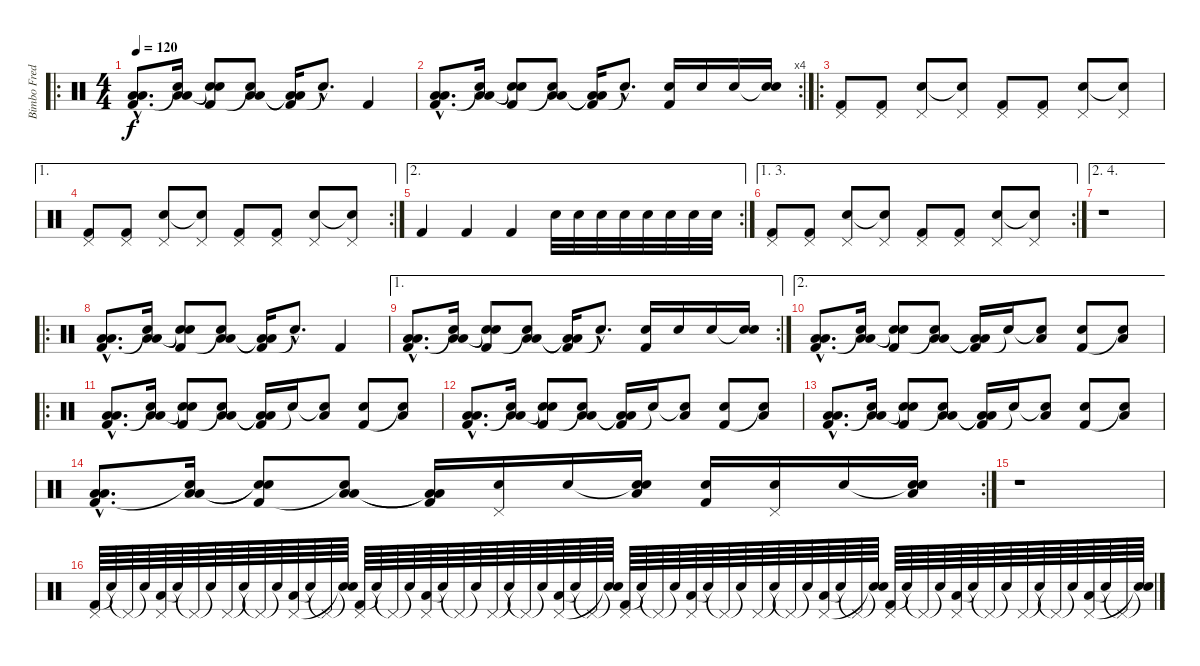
\track ("Bimbo Fred" "Bimbo Fred") {instrument percussion}
\staff {score}
\articulation defaults
\ro
\ts (4 4)
\tempo 120
\clef neutral
\ks c
("Kick (hit) 2"{hac} "Low Tom (hit)"{hac} "Low Tom (hit)"{hac}).8{d dy f} ("Snare (hit)"{t} "Low Tom (hit)" "Low Tom (hit)").16 ("Kick (hit) 2" "Snare (hit)"{t} "Snare (hit)"{t}).8 ("Snare (hit)"{t} "Low Tom (hit)" "Low Tom (hit)").8 ("Kick (hit) 2" "Low Tom (hit)"{t} "Low Tom (hit)"{t}).16 "Snare (hit)"{hac t}.8{d} "Kick (hit) 2".4 |
\rc 4
("Kick (hit) 2"{hac} "Low Tom (hit)"{hac} "Low Tom (hit)"{hac}).8{d} ("Snare (hit)"{t} "Low Tom (hit)" "Low Tom (hit)").16 ("Kick (hit) 2" "Snare (hit)"{t} "Snare (hit)"{t}).8 ("Snare (hit)"{t} "Low Tom (hit)" "Low Tom (hit)").8 ("Kick (hit) 2" "Low Tom (hit)"{t} "Low Tom (hit)"{t}).16 "Snare (hit)"{hac t}.8{d} ("Kick (hit) 2" "Snare (hit) 2").16 "Snare (hit) 2".16 "Snare (hit) 2".16 ("Snare (hit)"{t} "Snare (hit) 2").16 |
\ro
("Pedal Hi-Hat (hit)" "Kick (hit) 2").8 ("Pedal Hi-Hat (hit)" "Kick (hit) 2").8 ("Pedal Hi-Hat (hit)" "Snare (hit) 2").8 ("Pedal Hi-Hat (hit)" "Snare (hit) 2"{t}).8 ("Pedal Hi-Hat (hit)" "Kick (hit) 2").8 ("Pedal Hi-Hat (hit)" "Kick (hit) 2").8 ("Pedal Hi-Hat (hit)" "Snare (hit) 2").8 ("Pedal Hi-Hat (hit)" "Snare (hit)"{t}).8 |
\ae 1
\rc 2
("Pedal Hi-Hat (hit)" "Kick (hit) 2").8 ("Pedal Hi-Hat (hit)" "Kick (hit) 2").8 ("Pedal Hi-Hat (hit)" "Snare (hit) 2").8 ("Pedal Hi-Hat (hit)" "Snare (hit) 2"{t}).8 ("Pedal Hi-Hat (hit)" "Kick (hit) 2").8 ("Pedal Hi-Hat (hit)" "Kick (hit) 2").8 ("Pedal Hi-Hat (hit)" "Snare (hit) 2").8 ("Pedal Hi-Hat (hit)" "Snare (hit)"{t}).8 |
\ae 2
\rc 2 "Kick (hit) 2".4 "Kick (hit) 2".4 "Kick (hit) 2".4 "Snare (hit) 2".32 "Snare (hit) 2".32 "Snare (hit) 2".32 "Snare (hit) 2".32 "Snare (hit) 2".32 "Snare (hit) 2".32 "Snare (hit) 2".32 "Snare (hit) 2".32
|
\ae (1 3)
\rc 2
("Pedal Hi-Hat (hit)" "Kick (hit) 2").8 ("Pedal Hi-Hat (hit)" "Kick (hit) 2").8 ("Pedal Hi-Hat (hit)" "Snare (hit) 2").8 ("Pedal Hi-Hat (hit)" "Snare (hit) 2"{t}).8 ("Pedal Hi-Hat (hit)" "Kick (hit) 2").8 ("Pedal Hi-Hat (hit)" "Kick (hit) 2").8 ("Pedal Hi-Hat (hit)" "Snare (hit) 2").8 ("Pedal Hi-Hat (hit)" "Snare (hit)"{t}).8 |
\ae (2 4)
r.1 |
\ro
("Kick (hit) 2"{hac} "Low Tom (hit)"{hac} "Low Tom (hit)"{hac}).8{d} ("Snare (hit)"{t} "Low Tom (hit)" "Low Tom (hit)").16 ("Kick (hit) 2" "Snare (hit)"{t} "Snare (hit)"{t}).8 ("Snare (hit)"{t} "Low Tom (hit)" "Low Tom (hit)").8 ("Kick (hit) 2" "Low Tom (hit)"{t} "Low Tom (hit)"{t}).16 "Snare (hit)"{hac t}.8{d} "Kick (hit) 2".4 |
\ae 1
\rc 2
("Kick (hit) 2"{hac} "Low Tom (hit)"{hac} "Low Tom (hit)"{hac}).8{d} ("Snare (hit)"{t} "Low Tom (hit)" "Low Tom (hit)").16 ("Kick (hit) 2" "Snare (hit)"{t} "Snare (hit)"{t}).8 ("Snare (hit)"{t} "Low Tom (hit)" "Low Tom (hit)").8 ("Kick (hit) 2" "Low Tom (hit)"{t} "Low Tom (hit)"{t}).16 "Snare (hit)"{hac t}.8{d} ("Kick (hit) 2" "Snare (hit) 2").16 "Snare (hit) 2".16 "Snare (hit) 2".16 ("Snare (hit)"{t} "Snare (hit) 2").16 |
\ae 2
("Kick (hit) 2"{hac} "Low Tom (hit)"{hac} "Low Tom (hit)"{hac}).8{d} ("Snare (hit)"{t} "Low Tom (hit)" "Low Tom (hit)").16 ("Kick (hit) 2" "Snare (hit)"{t} "Snare (hit)"{t}).8 ("Snare (hit)"{t} "Low Tom (hit)" "Low Tom (hit)").8 ("Kick (hit) 2" "Low Tom (hit)"{t} "Low Tom (hit)"{t}).16 "Snare (hit)"{t}.16 ("Snare (hit)"{t} "Low Tom (hit)").8 ("Kick (hit) 2" "Snare (hit) 2").8 ("Snare (hit)"{t} "Low Tom (hit)").8 |
\ro
("Kick (hit) 2"{hac} "Low Tom (hit)"{hac} "Low Tom (hit)"{hac}).8{d} ("Snare (hit)"{t} "Low Tom (hit)" "Low Tom (hit)").16 ("Kick (hit) 2" "Snare (hit)"{t} "Snare (hit)"{t}).8 ("Snare (hit)"{t} "Low Tom (hit)" "Low Tom (hit)").8 ("Kick (hit) 2" "Low Tom (hit)"{t} "Low Tom (hit)"{t}).16 "Snare (hit)"{t}.16 ("Snare (hit)"{t} "Low Tom (hit)").8 ("Kick (hit) 2" "Snare (hit) 2").8 ("Snare (hit)"{t} "Low Tom (hit)").8 |
("Kick (hit) 2"{hac} "Low Tom (hit)"{hac} "Low Tom (hit)"{hac}).8{d} ("Snare (hit)"{t} "Low Tom (hit)" "Low Tom (hit)").16 ("Kick (hit) 2" "Snare (hit)"{t} "Snare (hit)"{t}).8 ("Snare (hit)"{t} "Low Tom (hit)" "Low Tom (hit)").8 ("Kick (hit) 2" "Low Tom (hit)"{t} "Low Tom (hit)"{t}).16 "Snare (hit)"{t}.16 ("Snare (hit)"{t} "Low Tom (hit)").8 ("Kick (hit) 2" "Snare (hit) 2").8 ("Snare (hit)"{t} "Low Tom (hit)").8 |
("Kick (hit) 2"{hac} "Low Tom (hit)"{hac} "Low Tom (hit)"{hac}).8{d} ("Snare (hit)"{t} "Low Tom (hit)" "Low Tom (hit)").16 ("Kick (hit) 2" "Snare (hit)"{t} "Snare (hit)"{t}).8 ("Snare (hit)"{t} "Low Tom (hit)" "Low Tom (hit)").8 ("Kick (hit) 2" "Low Tom (hit)"{t} "Low Tom (hit)"{t}).16 "Snare (hit)"{t}.16 ("Snare (hit)"{t} "Low Tom (hit)").8 ("Kick (hit) 2" "Snare (hit) 2").8 ("Snare (hit)"{t} "Low Tom (hit)").8 |
\rc 2
("Kick (hit) 2"{hac} "Low Tom (hit)"{hac} "Low Tom (hit)"{hac}).8{d} ("Snare (hit)"{t} "Low Tom (hit)" "Low Tom (hit)").16 ("Kick (hit) 2" "Snare (hit)"{t} "Snare (hit)"{t}).8 ("Snare (hit)"{t} "Low Tom (hit)" "Low Tom (hit)").8 ("Kick (hit) 2" "Low Tom (hit)"{t} "Low Tom (hit)"{t}).16 ("Pedal Hi-Hat (hit)" "Snare (hit) 2").16 "Snare (hit) 2".16 ("Snare (hit)"{t} "Low Tom (hit)" "Snare (hit) 2").16 ("Kick (hit) 2" "Snare (hit) 2").16 ("Pedal Hi-Hat (hit)" "Snare (hit) 2").16 "Snare (hit) 2".16 ("Snare (hit)"{t} "Low Tom (hit)" "Snare (hit) 2").16 |
r.1 |
("Kick (hit) 2" "Pedal Hi-Hat (hit)").64 "Snare (hit)"{t}.64 "Pedal Hi-Hat (hit)"{t}.64 "Snare (hit)"{t}.64 ("Low Tom (hit)" "Pedal Hi-Hat (hit)").64 "Snare (hit)"{t}.64 "Pedal Hi-Hat (hit)"{t}.64 "Snare (hit)"{t}.64 "Pedal Hi-Hat (hit)".64 "Snare (hit)"{t}.64 "Pedal Hi-Hat (hit)"{t}.64 "Snare (hit)"{t}.64 ("Low Tom (hit)" "Pedal Hi-Hat (hit)").64 "Snare (hit)"{t}.64 "Pedal Hi-Hat (hit)"{t}.64 ("Snare (hit)"{t} "Snare (hit)"{t}).64 ("Kick (hit) 2" "Pedal Hi-Hat (hit)").64 "Snare (hit)"{t}.64 "Pedal Hi-Hat (hit)"{t}.64 "Snare (hit)"{t}.64 ("Low Tom (hit)" "Pedal Hi-Hat (hit)").64 "Snare (hit)"{t}.64 "Pedal Hi-Hat (hit)"{t}.64 "Snare (hit)"{t}.64 "Pedal Hi-Hat (hit)".64 "Snare (hit)"{t}.64 "Pedal Hi-Hat (hit)"{t}.64 "Snare (hit)"{t}.64 ("Low Tom (hit)" "Pedal Hi-Hat (hit)").64 "Snare (hit)"{t}.64 "Pedal Hi-Hat (hit)"{t}.64 ("Snare (hit)"{t} "Snare (hit)"{t}).64 ("Kick (hit) 2" "Pedal Hi-Hat (hit)").64 "Snare (hit)"{t}.64 "Pedal Hi-Hat (hit)"{t}.64 "Snare (hit)"{t}.64 ("Low Tom (hit)" "Pedal Hi-Hat (hit)").64 "Snare (hit)"{t}.64 "Pedal Hi-Hat (hit)"{t}.64 "Snare (hit)"{t}.64 "Pedal Hi-Hat (hit)".64 "Snare (hit)"{t}.64 "Pedal Hi-Hat (hit)"{t}.64 "Snare (hit)"{t}.64 ("Low Tom (hit)" "Pedal Hi-Hat (hit)").64 "Snare (hit)"{t}.64 "Pedal Hi-Hat (hit)"{t}.64 ("Snare (hit)"{t} "Snare (hit)"{t}).64 ("Kick (hit) 2" "Pedal Hi-Hat (hit)").64 "Snare (hit)"{t}.64 "Pedal Hi-Hat (hit)"{t}.64 "Snare (hit)"{t}.64 ("Low Tom (hit)" "Pedal Hi-Hat (hit)").64 "Snare (hit)"{t}.64 "Pedal Hi-Hat (hit)"{t}.64 "Snare (hit)"{t}.64 "Pedal Hi-Hat (hit)".64 "Snare (hit)"{t}.64 "Pedal Hi-Hat (hit)"{t}.64 "Snare (hit)"{t}.64 ("Low Tom (hit)" "Pedal Hi-Hat (hit)").64 "Snare (hit)"{t}.64 "Pedal Hi-Hat (hit)"{t}.64 ("Snare (hit)"{t} "Snare (hit)"{t}).64
